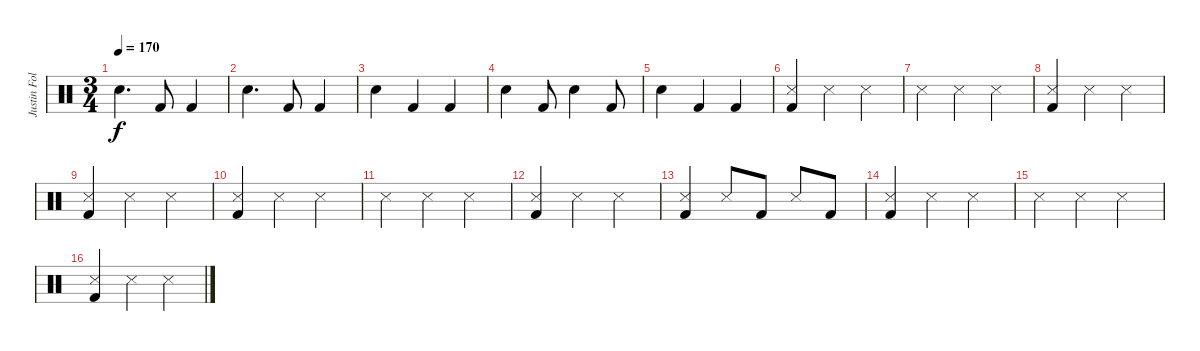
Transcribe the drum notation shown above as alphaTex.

\track ("Justin Foley" "Justin Fol") {instrument percussion}
\staff {score}
\articulation defaults
\ts (3 4)
\tempo 170
\clef neutral
\ks c "Snare (hit) 2".4{d dy f} "Kick (hit) 2".8 "Kick (hit) 2".4
|
"Snare (hit) 2".4{d} "Kick (hit) 2".8 "Kick (hit) 2".4 |
"Snare (hit) 2".4 "Kick (hit) 2".4 "Kick (hit) 2".4 |
"Snare (hit) 2".4 "Kick (hit) 2".8 "Snare (hit) 2".4 "Kick (hit) 2".8 |
"Snare (hit) 2".4 "Kick (hit) 2".4 "Kick (hit) 2".4 |
("Metronome (hit)" "Kick (hit) 2").4 "Metronome (hit)".4 "Metronome (hit)".4 |
"Metronome (hit)".4 "Metronome (hit)".4 "Metronome (hit)".4 |
("Metronome (hit)" "Kick (hit) 2").4 "Metronome (hit)".4 "Metronome (hit)".4 |
("Metronome (hit)" "Kick (hit) 2").4 "Metronome (hit)".4 "Metronome (hit)".4 |
("Metronome (hit)" "Kick (hit) 2").4 "Metronome (hit)".4 "Metronome (hit)".4 |
"Metronome (hit)".4 "Metronome (hit)".4 "Metronome (hit)".4 |
("Metronome (hit)" "Kick (hit) 2").4 "Metronome (hit)".4 "Metronome (hit)".4 |
("Metronome (hit)" "Kick (hit) 2").4 "Metronome (hit)".8 "Kick (hit) 2".8 "Metronome (hit)".8 "Kick (hit) 2".8 |
("Metronome (hit)" "Kick (hit) 2").4 "Metronome (hit)".4 "Metronome (hit)".4 |
"Metronome (hit)".4 "Metronome (hit)".4 "Metronome (hit)".4 |
("Metronome (hit)" "Kick (hit) 2").4 "Metronome (hit)".4 "Metronome (hit)".4
